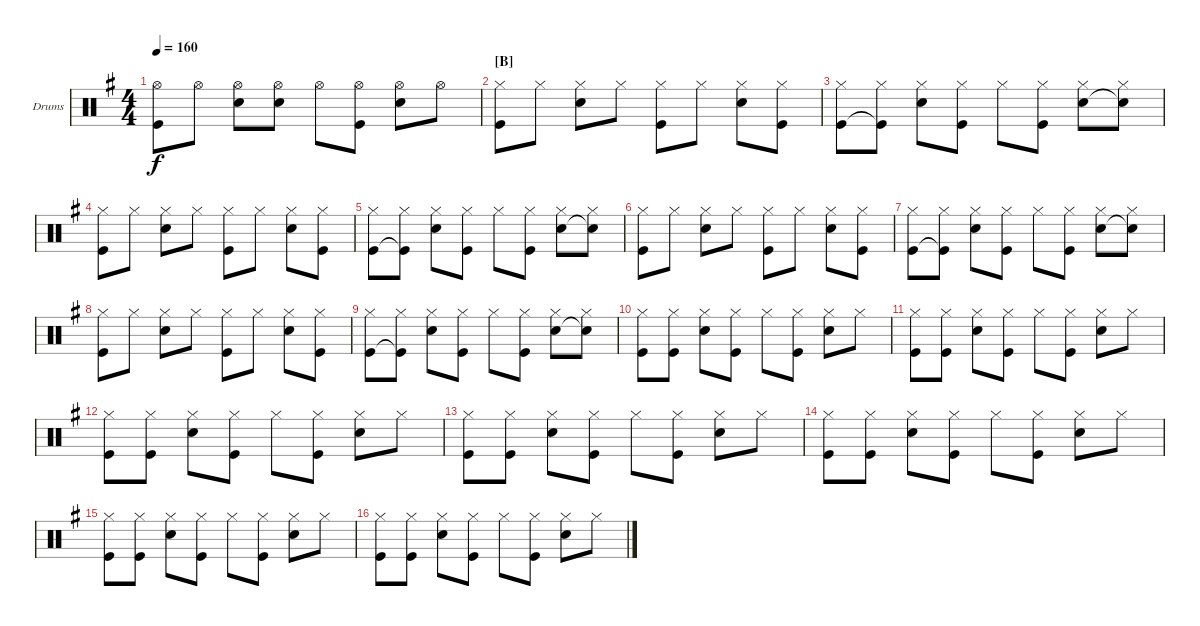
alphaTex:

\bracketExtendMode groupsimilarinstruments
\firstSystemTrackNameOrientation horizontal
\otherSystemsTrackNameOrientation horizontal
\track ("Fabrizio Moretti" "Drums") {instrument percussion}
\staff {score}
\articulation defaults
\ts (4 4)
\tempo 160
\clef neutral
\ks g
("Hi-Hat (open)" "Kick (hit)").8{dy f} "Hi-Hat (open)".8 ("Hi-Hat (open)" "Snare (hit) 2").8 ("Hi-Hat (open)" "Snare (hit) 2").8 "Hi-Hat (open)".8 ("Hi-Hat (open)" "Kick (hit)").8 ("Hi-Hat (open)" "Snare (hit) 2").8 "Hi-Hat (open)".8 |
\section ("B" "")
("Hi-Hat (closed)" "Kick (hit)").8 "Hi-Hat (closed)".8 ("Hi-Hat (closed)" "Snare (hit) 2").8 "Hi-Hat (closed)".8 ("Hi-Hat (closed)" "Kick (hit)").8 "Hi-Hat (closed)".8 ("Hi-Hat (closed)" "Snare (hit) 2").8 ("Hi-Hat (closed)" "Kick (hit)").8 |
("Hi-Hat (closed)" "Kick (hit)").8 ("Hi-Hat (closed)" "Kick (hit)"{t}).8 ("Hi-Hat (closed)" "Snare (hit) 2").8 ("Hi-Hat (closed)" "Kick (hit)").8 "Hi-Hat (closed)".8 ("Hi-Hat (closed)" "Kick (hit)").8 ("Hi-Hat (closed)" "Snare (hit) 2").8 ("Hi-Hat (closed)" "Snare (hit) 2"{t}).8 |
("Hi-Hat (closed)" "Kick (hit)").8 "Hi-Hat (closed)".8 ("Hi-Hat (closed)" "Snare (hit) 2").8 "Hi-Hat (closed)".8 ("Hi-Hat (closed)" "Kick (hit)").8 "Hi-Hat (closed)".8 ("Hi-Hat (closed)" "Snare (hit) 2").8 ("Hi-Hat (closed)" "Kick (hit)").8 |
("Hi-Hat (closed)" "Kick (hit)").8 ("Hi-Hat (closed)" "Kick (hit)"{t}).8 ("Hi-Hat (closed)" "Snare (hit) 2").8 ("Hi-Hat (closed)" "Kick (hit)").8 "Hi-Hat (closed)".8 ("Hi-Hat (closed)" "Kick (hit)").8 ("Hi-Hat (closed)" "Snare (hit) 2").8 ("Hi-Hat (closed)" "Snare (hit) 2"{t}).8 |
("Hi-Hat (closed)" "Kick (hit)").8 "Hi-Hat (closed)".8 ("Hi-Hat (closed)" "Snare (hit) 2").8 "Hi-Hat (closed)".8 ("Hi-Hat (closed)" "Kick (hit)").8 "Hi-Hat (closed)".8 ("Hi-Hat (closed)" "Snare (hit) 2").8 ("Hi-Hat (closed)" "Kick (hit)").8 |
("Hi-Hat (closed)" "Kick (hit)").8 ("Hi-Hat (closed)" "Kick (hit)"{t}).8 ("Hi-Hat (closed)" "Snare (hit) 2").8 ("Hi-Hat (closed)" "Kick (hit)").8 "Hi-Hat (closed)".8 ("Hi-Hat (closed)" "Kick (hit)").8 ("Hi-Hat (closed)" "Snare (hit) 2").8 ("Hi-Hat (closed)" "Snare (hit) 2"{t}).8 |
("Hi-Hat (closed)" "Kick (hit)").8 "Hi-Hat (closed)".8 ("Hi-Hat (closed)" "Snare (hit) 2").8 "Hi-Hat (closed)".8 ("Hi-Hat (closed)" "Kick (hit)").8 "Hi-Hat (closed)".8 ("Hi-Hat (closed)" "Snare (hit) 2").8 ("Hi-Hat (closed)" "Kick (hit)").8 |
("Hi-Hat (closed)" "Kick (hit)").8 ("Hi-Hat (closed)" "Kick (hit)"{t}).8 ("Hi-Hat (closed)" "Snare (hit) 2").8 ("Hi-Hat (closed)" "Kick (hit)").8 "Hi-Hat (closed)".8 ("Hi-Hat (closed)" "Kick (hit)").8 ("Hi-Hat (closed)" "Snare (hit) 2").8 ("Hi-Hat (closed)" "Snare (hit) 2"{t}).8 |
("Hi-Hat (closed)" "Kick (hit)").8 ("Hi-Hat (closed)" "Kick (hit)").8 ("Hi-Hat (closed)" "Snare (hit) 2").8 ("Hi-Hat (closed)" "Kick (hit)").8 "Hi-Hat (closed)".8 ("Hi-Hat (closed)" "Kick (hit)").8 ("Hi-Hat (closed)" "Snare (hit) 2").8 "Hi-Hat (closed)".8 |
("Hi-Hat (closed)" "Kick (hit)").8 ("Hi-Hat (closed)" "Kick (hit)").8 ("Hi-Hat (closed)" "Snare (hit) 2").8 ("Hi-Hat (closed)" "Kick (hit)").8 "Hi-Hat (closed)".8 ("Hi-Hat (closed)" "Kick (hit)").8 ("Hi-Hat (closed)" "Snare (hit) 2").8 "Hi-Hat (closed)".8 |
("Hi-Hat (closed)" "Kick (hit)").8 ("Hi-Hat (closed)" "Kick (hit)").8 ("Hi-Hat (closed)" "Snare (hit) 2").8 ("Hi-Hat (closed)" "Kick (hit)").8 "Hi-Hat (closed)".8 ("Hi-Hat (closed)" "Kick (hit)").8 ("Hi-Hat (closed)" "Snare (hit) 2").8 "Hi-Hat (closed)".8 |
("Hi-Hat (closed)" "Kick (hit)").8 ("Hi-Hat (closed)" "Kick (hit)").8 ("Hi-Hat (closed)" "Snare (hit) 2").8 ("Hi-Hat (closed)" "Kick (hit)").8 "Hi-Hat (closed)".8 ("Hi-Hat (closed)" "Kick (hit)").8 ("Hi-Hat (closed)" "Snare (hit) 2").8 "Hi-Hat (closed)".8 |
("Hi-Hat (closed)" "Kick (hit)").8 ("Hi-Hat (closed)" "Kick (hit)").8 ("Hi-Hat (closed)" "Snare (hit) 2").8 ("Hi-Hat (closed)" "Kick (hit)").8 "Hi-Hat (closed)".8 ("Hi-Hat (closed)" "Kick (hit)").8 ("Hi-Hat (closed)" "Snare (hit) 2").8 "Hi-Hat (closed)".8 |
("Hi-Hat (closed)" "Kick (hit)").8 ("Hi-Hat (closed)" "Kick (hit)").8 ("Hi-Hat (closed)" "Snare (hit) 2").8 ("Hi-Hat (closed)" "Kick (hit)").8 "Hi-Hat (closed)".8 ("Hi-Hat (closed)" "Kick (hit)").8 ("Hi-Hat (closed)" "Snare (hit) 2").8 "Hi-Hat (closed)".8 |
("Hi-Hat (closed)" "Kick (hit)").8 ("Hi-Hat (closed)" "Kick (hit)").8 ("Hi-Hat (closed)" "Snare (hit) 2").8 ("Hi-Hat (closed)" "Kick (hit)").8 "Hi-Hat (closed)".8 ("Hi-Hat (closed)" "Kick (hit)").8 ("Hi-Hat (closed)" "Snare (hit) 2").8 "Hi-Hat (closed)".8
